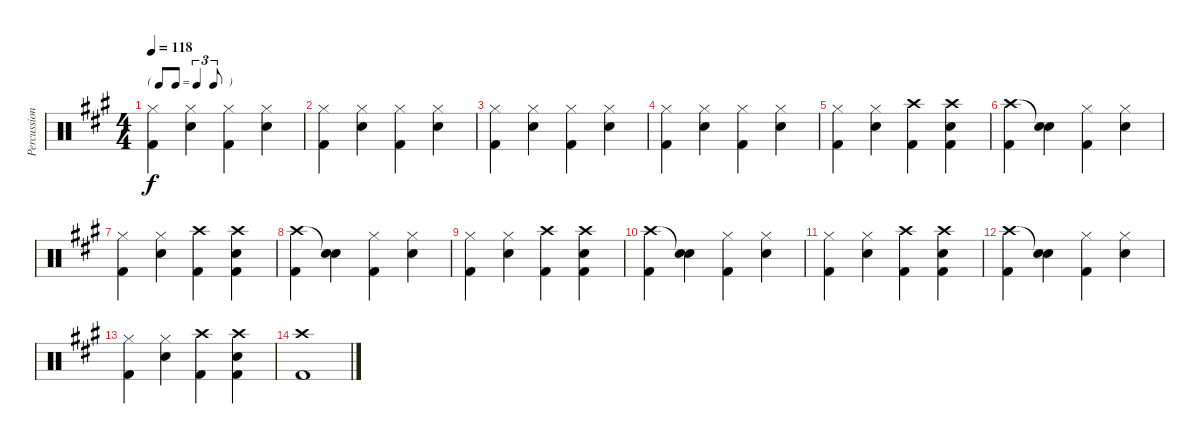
\track ("Percussion" "Percussion") {instrument percussion}
\staff {score}
\articulation defaults
\ts (4 4)
\tf triplet8th
\tempo 118
\clef neutral
\ks a
("Hi-Hat (closed)" "Kick (hit) 2").4{dy f} ("Hi-Hat (closed)" "Snare (hit) 2").4 ("Hi-Hat (closed)" "Kick (hit) 2").4 ("Hi-Hat (closed)" "Snare (hit) 2").4 |
("Hi-Hat (closed)" "Kick (hit) 2").4 ("Hi-Hat (closed)" "Snare (hit) 2").4 ("Hi-Hat (closed)" "Kick (hit) 2").4 ("Hi-Hat (closed)" "Snare (hit) 2").4 |
("Hi-Hat (closed)" "Kick (hit) 2").4 ("Hi-Hat (closed)" "Snare (hit) 2").4 ("Hi-Hat (closed)" "Kick (hit) 2").4 ("Hi-Hat (closed)" "Snare (hit) 2").4 |
("Hi-Hat (closed)" "Kick (hit) 2").4 ("Hi-Hat (closed)" "Snare (hit) 2").4 ("Hi-Hat (closed)" "Kick (hit) 2").4 ("Hi-Hat (closed)" "Snare (hit) 2").4 |
("Hi-Hat (closed)" "Kick (hit) 2").4 ("Hi-Hat (closed)" "Snare (hit) 2").4 ("Crash high (hit)" "Kick (hit) 2").4 ("Crash high (hit)" "Snare (hit) 2" "Kick (hit) 2").4 |
("Crash high (hit)" "Kick (hit) 2").4 ("Snare (hit)"{t} "Snare (hit) 2").4 ("Hi-Hat (closed)" "Kick (hit) 2").4 ("Hi-Hat (closed)" "Snare (hit) 2").4 |
("Hi-Hat (closed)" "Kick (hit) 2").4 ("Hi-Hat (closed)" "Snare (hit) 2").4 ("Crash high (hit)" "Kick (hit) 2").4 ("Crash high (hit)" "Snare (hit) 2" "Kick (hit) 2").4 |
("Crash high (hit)" "Kick (hit) 2").4 ("Snare (hit)"{t} "Snare (hit) 2").4 ("Hi-Hat (closed)" "Kick (hit) 2").4 ("Hi-Hat (closed)" "Snare (hit) 2").4 |
("Hi-Hat (closed)" "Kick (hit) 2").4 ("Hi-Hat (closed)" "Snare (hit) 2").4 ("Crash high (hit)" "Kick (hit) 2").4 ("Crash high (hit)" "Snare (hit) 2" "Kick (hit) 2").4 |
("Crash high (hit)" "Kick (hit) 2").4 ("Snare (hit)"{t} "Snare (hit) 2").4 ("Hi-Hat (closed)" "Kick (hit) 2").4 ("Hi-Hat (closed)" "Snare (hit) 2").4 |
("Hi-Hat (closed)" "Kick (hit) 2").4 ("Hi-Hat (closed)" "Snare (hit) 2").4 ("Crash high (hit)" "Kick (hit) 2").4 ("Crash high (hit)" "Snare (hit) 2" "Kick (hit) 2").4 |
("Crash high (hit)" "Kick (hit) 2").4 ("Snare (hit)"{t} "Snare (hit) 2").4 ("Hi-Hat (closed)" "Kick (hit) 2").4 ("Hi-Hat (closed)" "Snare (hit) 2").4 |
("Hi-Hat (closed)" "Kick (hit) 2").4 ("Hi-Hat (closed)" "Snare (hit) 2").4 ("Crash high (hit)" "Kick (hit) 2").4 ("Crash high (hit)" "Snare (hit) 2" "Kick (hit) 2").4 |
("Crash high (hit)" "Kick (hit) 2").1
